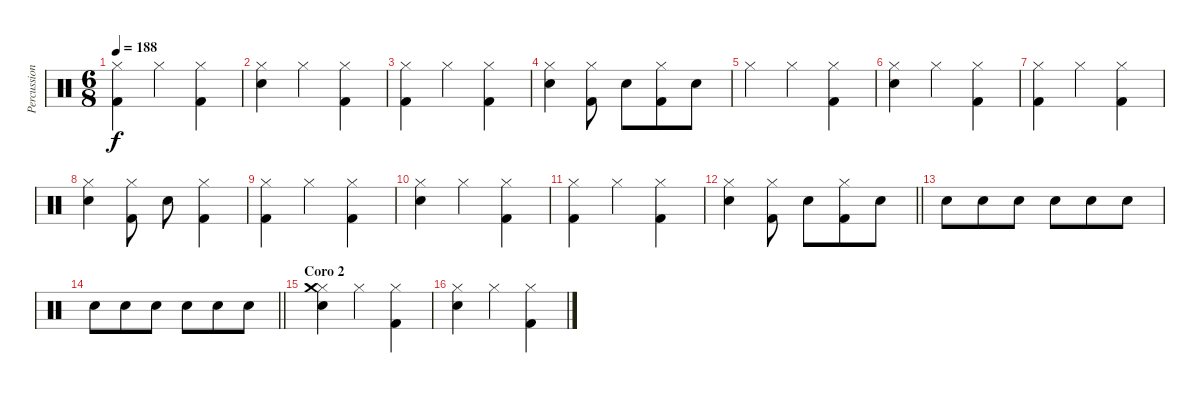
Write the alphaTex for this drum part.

\track ("Percussion" "Percussion") {instrument percussion}
\staff {score}
\articulation defaults
\ts (6 8)
\tempo 188
\clef neutral
\ks c
("Hi-Hat (closed)" "Kick (hit) 2").4{dy f} "Hi-Hat (closed)".4 ("Hi-Hat (closed)" "Kick (hit) 2").4 |
("Hi-Hat (closed)" "Snare (hit) 2").4 "Hi-Hat (closed)".4 ("Hi-Hat (closed)" "Kick (hit) 2").4 |
("Hi-Hat (closed)" "Kick (hit) 2").4 "Hi-Hat (closed)".4 ("Hi-Hat (closed)" "Kick (hit) 2").4 |
("Hi-Hat (closed)" "Snare (hit) 2").4 ("Hi-Hat (closed)" "Kick (hit) 2").8 "Electric Snare (hit)".8 ("Hi-Hat (closed)" "Kick (hit) 2").8 "Electric Snare (hit)".8 |
"Hi-Hat (closed)".4 "Hi-Hat (closed)".4 ("Hi-Hat (closed)" "Kick (hit) 2").4 |
("Hi-Hat (closed)" "Snare (hit) 2").4 "Hi-Hat (closed)".4 ("Hi-Hat (closed)" "Kick (hit) 2").4 |
("Hi-Hat (closed)" "Kick (hit) 2").4 "Hi-Hat (closed)".4 ("Hi-Hat (closed)" "Kick (hit) 2").4 |
("Hi-Hat (closed)" "Snare (hit) 2").4 ("Hi-Hat (closed)" "Kick (hit) 2").8 "Electric Snare (hit)".8 ("Hi-Hat (closed)" "Kick (hit) 2").4 |
("Hi-Hat (closed)" "Kick (hit) 2").4 "Hi-Hat (closed)".4 ("Hi-Hat (closed)" "Kick (hit) 2").4 |
("Hi-Hat (closed)" "Snare (hit) 2").4 "Hi-Hat (closed)".4 ("Hi-Hat (closed)" "Kick (hit) 2").4 |
("Hi-Hat (closed)" "Kick (hit) 2").4 "Hi-Hat (closed)".4 ("Hi-Hat (closed)" "Kick (hit) 2").4 |
\barLineRight lightlight
("Hi-Hat (closed)" "Snare (hit) 2").4 ("Hi-Hat (closed)" "Kick (hit) 2").8 "Electric Snare (hit)".8 ("Hi-Hat (closed)" "Kick (hit) 2").8 "Electric Snare (hit)".8 |
"Snare (hit) 2".8 "Snare (hit) 2".8 "Snare (hit) 2".8 "Snare (hit) 2".8 "Snare (hit) 2".8 "Snare (hit) 2".8 |
\barLineRight lightlight "Snare (hit) 2".8 "Snare (hit) 2".8 "Snare (hit) 2".8 "Snare (hit) 2".8 "Snare (hit) 2".8 "Snare (hit) 2".8
|
\section ("" "Coro 2")
("Hi-Hat (closed)" "Crash medium (hit)" "Snare (hit) 2").4 "Hi-Hat (closed)".4 ("Hi-Hat (closed)" "Kick (hit) 2").4 |
("Hi-Hat (closed)" "Snare (hit) 2").4 "Hi-Hat (closed)".4 ("Hi-Hat (closed)" "Kick (hit) 2").4
